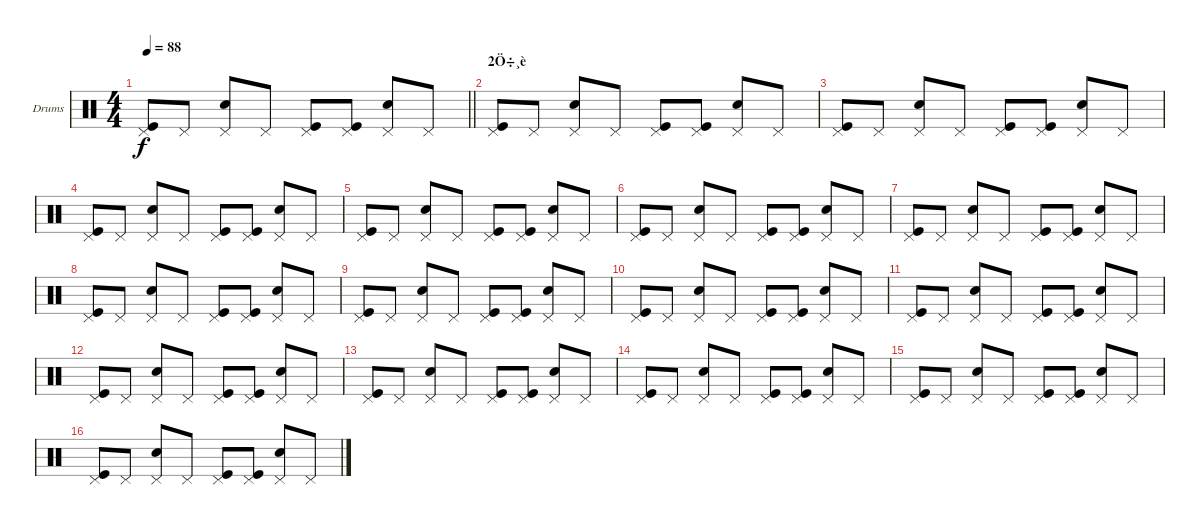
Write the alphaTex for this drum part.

\bracketExtendMode groupsimilarinstruments
\firstSystemTrackNameOrientation horizontal
\otherSystemsTrackNameOrientation horizontal
\track ("Drumkit" "Drums") {instrument percussion}
\staff {score}
\articulation defaults
\ts (4 4)
\tempo 88
\clef neutral
\barLineRight lightlight
\ks c
("Pedal Hi-Hat (hit)" "Kick (hit)").8{dy f} "Pedal Hi-Hat (hit)".8 ("Pedal Hi-Hat (hit)" "Snare (hit) 2").8 "Pedal Hi-Hat (hit)".8 ("Pedal Hi-Hat (hit)" "Kick (hit)").8 ("Pedal Hi-Hat (hit)" "Kick (hit)").8 ("Pedal Hi-Hat (hit)" "Snare (hit) 2").8 "Pedal Hi-Hat (hit)".8 |
\section ("" "2Ö÷¸è")
("Pedal Hi-Hat (hit)" "Kick (hit)").8 "Pedal Hi-Hat (hit)".8 ("Pedal Hi-Hat (hit)" "Snare (hit) 2").8 "Pedal Hi-Hat (hit)".8 ("Pedal Hi-Hat (hit)" "Kick (hit)").8 ("Pedal Hi-Hat (hit)" "Kick (hit)").8 ("Pedal Hi-Hat (hit)" "Snare (hit) 2").8 "Pedal Hi-Hat (hit)".8 |
("Pedal Hi-Hat (hit)" "Kick (hit)").8 "Pedal Hi-Hat (hit)".8 ("Pedal Hi-Hat (hit)" "Snare (hit) 2").8 "Pedal Hi-Hat (hit)".8 ("Pedal Hi-Hat (hit)" "Kick (hit)").8 ("Pedal Hi-Hat (hit)" "Kick (hit)").8 ("Pedal Hi-Hat (hit)" "Snare (hit) 2").8 "Pedal Hi-Hat (hit)".8 |
("Pedal Hi-Hat (hit)" "Kick (hit)").8 "Pedal Hi-Hat (hit)".8 ("Pedal Hi-Hat (hit)" "Snare (hit) 2").8 "Pedal Hi-Hat (hit)".8 ("Pedal Hi-Hat (hit)" "Kick (hit)").8 ("Pedal Hi-Hat (hit)" "Kick (hit)").8 ("Pedal Hi-Hat (hit)" "Snare (hit) 2").8 "Pedal Hi-Hat (hit)".8 |
("Pedal Hi-Hat (hit)" "Kick (hit)").8 "Pedal Hi-Hat (hit)".8 ("Pedal Hi-Hat (hit)" "Snare (hit) 2").8 "Pedal Hi-Hat (hit)".8 ("Pedal Hi-Hat (hit)" "Kick (hit)").8 ("Pedal Hi-Hat (hit)" "Kick (hit)").8 ("Pedal Hi-Hat (hit)" "Snare (hit) 2").8 "Pedal Hi-Hat (hit)".8 |
("Pedal Hi-Hat (hit)" "Kick (hit)").8 "Pedal Hi-Hat (hit)".8 ("Pedal Hi-Hat (hit)" "Snare (hit) 2").8 "Pedal Hi-Hat (hit)".8 ("Pedal Hi-Hat (hit)" "Kick (hit)").8 ("Pedal Hi-Hat (hit)" "Kick (hit)").8 ("Pedal Hi-Hat (hit)" "Snare (hit) 2").8 "Pedal Hi-Hat (hit)".8 |
("Pedal Hi-Hat (hit)" "Kick (hit)").8 "Pedal Hi-Hat (hit)".8 ("Pedal Hi-Hat (hit)" "Snare (hit) 2").8 "Pedal Hi-Hat (hit)".8 ("Pedal Hi-Hat (hit)" "Kick (hit)").8 ("Pedal Hi-Hat (hit)" "Kick (hit)").8 ("Pedal Hi-Hat (hit)" "Snare (hit) 2").8 "Pedal Hi-Hat (hit)".8 |
("Pedal Hi-Hat (hit)" "Kick (hit)").8 "Pedal Hi-Hat (hit)".8 ("Pedal Hi-Hat (hit)" "Snare (hit) 2").8 "Pedal Hi-Hat (hit)".8 ("Pedal Hi-Hat (hit)" "Kick (hit)").8 ("Pedal Hi-Hat (hit)" "Kick (hit)").8 ("Pedal Hi-Hat (hit)" "Snare (hit) 2").8 "Pedal Hi-Hat (hit)".8 |
("Pedal Hi-Hat (hit)" "Kick (hit)").8 "Pedal Hi-Hat (hit)".8 ("Pedal Hi-Hat (hit)" "Snare (hit) 2").8 "Pedal Hi-Hat (hit)".8 ("Pedal Hi-Hat (hit)" "Kick (hit)").8 ("Pedal Hi-Hat (hit)" "Kick (hit)").8 ("Pedal Hi-Hat (hit)" "Snare (hit) 2").8 "Pedal Hi-Hat (hit)".8 |
("Pedal Hi-Hat (hit)" "Kick (hit)").8 "Pedal Hi-Hat (hit)".8 ("Pedal Hi-Hat (hit)" "Snare (hit) 2").8 "Pedal Hi-Hat (hit)".8 ("Pedal Hi-Hat (hit)" "Kick (hit)").8 ("Pedal Hi-Hat (hit)" "Kick (hit)").8 ("Pedal Hi-Hat (hit)" "Snare (hit) 2").8 "Pedal Hi-Hat (hit)".8 |
("Pedal Hi-Hat (hit)" "Kick (hit)").8 "Pedal Hi-Hat (hit)".8 ("Pedal Hi-Hat (hit)" "Snare (hit) 2").8 "Pedal Hi-Hat (hit)".8 ("Pedal Hi-Hat (hit)" "Kick (hit)").8 ("Pedal Hi-Hat (hit)" "Kick (hit)").8 ("Pedal Hi-Hat (hit)" "Snare (hit) 2").8 "Pedal Hi-Hat (hit)".8 |
("Pedal Hi-Hat (hit)" "Kick (hit)").8 "Pedal Hi-Hat (hit)".8 ("Pedal Hi-Hat (hit)" "Snare (hit) 2").8 "Pedal Hi-Hat (hit)".8 ("Pedal Hi-Hat (hit)" "Kick (hit)").8 ("Pedal Hi-Hat (hit)" "Kick (hit)").8 ("Pedal Hi-Hat (hit)" "Snare (hit) 2").8 "Pedal Hi-Hat (hit)".8 |
("Pedal Hi-Hat (hit)" "Kick (hit)").8 "Pedal Hi-Hat (hit)".8 ("Pedal Hi-Hat (hit)" "Snare (hit) 2").8 "Pedal Hi-Hat (hit)".8 ("Pedal Hi-Hat (hit)" "Kick (hit)").8 ("Pedal Hi-Hat (hit)" "Kick (hit)").8 ("Pedal Hi-Hat (hit)" "Snare (hit) 2").8 "Pedal Hi-Hat (hit)".8 |
("Pedal Hi-Hat (hit)" "Kick (hit)").8 "Pedal Hi-Hat (hit)".8 ("Pedal Hi-Hat (hit)" "Snare (hit) 2").8 "Pedal Hi-Hat (hit)".8 ("Pedal Hi-Hat (hit)" "Kick (hit)").8 ("Pedal Hi-Hat (hit)" "Kick (hit)").8 ("Pedal Hi-Hat (hit)" "Snare (hit) 2").8 "Pedal Hi-Hat (hit)".8 |
("Pedal Hi-Hat (hit)" "Kick (hit)").8 "Pedal Hi-Hat (hit)".8 ("Pedal Hi-Hat (hit)" "Snare (hit) 2").8 "Pedal Hi-Hat (hit)".8 ("Pedal Hi-Hat (hit)" "Kick (hit)").8 ("Pedal Hi-Hat (hit)" "Kick (hit)").8 ("Pedal Hi-Hat (hit)" "Snare (hit) 2").8 "Pedal Hi-Hat (hit)".8 |
("Pedal Hi-Hat (hit)" "Kick (hit)").8 "Pedal Hi-Hat (hit)".8 ("Pedal Hi-Hat (hit)" "Snare (hit) 2").8 "Pedal Hi-Hat (hit)".8 ("Pedal Hi-Hat (hit)" "Kick (hit)").8 ("Pedal Hi-Hat (hit)" "Kick (hit)").8 ("Pedal Hi-Hat (hit)" "Snare (hit) 2").8 "Pedal Hi-Hat (hit)".8
